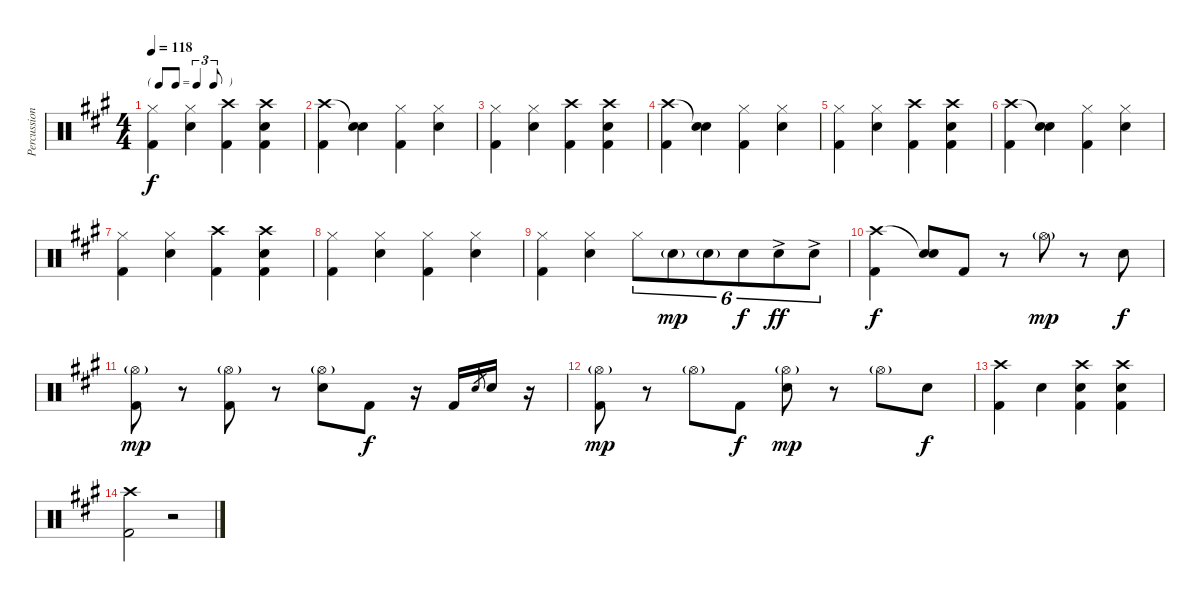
\track ("Percussion" "Percussion") {instrument percussion}
\staff {score}
\articulation defaults
\ts (4 4)
\tf triplet8th
\tempo 118
\clef neutral
\ks a
("Hi-Hat (closed)" "Kick (hit) 2").4{dy f} ("Hi-Hat (closed)" "Snare (hit) 2").4 ("Crash high (hit)" "Kick (hit) 2").4 ("Crash high (hit)" "Snare (hit) 2" "Kick (hit) 2").4 |
("Crash high (hit)" "Kick (hit) 2").4 ("Snare (hit)"{t} "Snare (hit) 2").4 ("Hi-Hat (closed)" "Kick (hit) 2").4 ("Hi-Hat (closed)" "Snare (hit) 2").4 |
("Hi-Hat (closed)" "Kick (hit) 2").4 ("Hi-Hat (closed)" "Snare (hit) 2").4 ("Crash high (hit)" "Kick (hit) 2").4 ("Crash high (hit)" "Snare (hit) 2" "Kick (hit) 2").4 |
("Crash high (hit)" "Kick (hit) 2").4 ("Snare (hit)"{t} "Snare (hit) 2").4 ("Hi-Hat (closed)" "Kick (hit) 2").4 ("Hi-Hat (closed)" "Snare (hit) 2").4 |
("Hi-Hat (closed)" "Kick (hit) 2").4 ("Hi-Hat (closed)" "Snare (hit) 2").4 ("Crash high (hit)" "Kick (hit) 2").4 ("Crash high (hit)" "Snare (hit) 2" "Kick (hit) 2").4 |
("Crash high (hit)" "Kick (hit) 2").4 ("Snare (hit)"{t} "Snare (hit) 2").4 ("Hi-Hat (closed)" "Kick (hit) 2").4 ("Hi-Hat (closed)" "Snare (hit) 2").4 |
("Hi-Hat (closed)" "Kick (hit) 2").4 ("Hi-Hat (closed)" "Snare (hit) 2").4 ("Crash high (hit)" "Kick (hit) 2").4 ("Crash high (hit)" "Snare (hit) 2" "Kick (hit) 2").4 |
("Hi-Hat (closed)" "Kick (hit) 2").4 ("Hi-Hat (closed)" "Snare (hit) 2").4 ("Hi-Hat (closed)" "Kick (hit) 2").4 ("Hi-Hat (closed)" "Snare (hit) 2").4 |
("Hi-Hat (closed)" "Kick (hit) 2").4 ("Hi-Hat (closed)" "Snare (hit) 2").4 "Hi-Hat (closed)".8{tu (6 4)} "Snare (hit) 2"{g}.8{tu (6 4) dy mp} "Snare (hit) 2"{g}.8{tu (6 4)} "Snare (hit) 2".8{tu (6 4) dy f} "Snare (hit) 2"{ac}.8{tu (6 4) dy ff} "Snare (hit) 2"{ac}.8{tu (6 4)} |
("Crash high (hit)" "Kick (hit) 2").4{dy f} ("Snare (hit)"{t} "Snare (hit) 2").8 "Kick (hit) 2".8 r.8 "Hi-Hat (open)"{g}.8{dy mp} r.8 "Snare (hit) 2".8{dy f} |
("Hi-Hat (open)"{g} "Kick (hit) 2").8{dy mp} r.8 ("Hi-Hat (open)"{g} "Kick (hit) 2").8 r.8 ("Hi-Hat (open)"{g} "Snare (hit) 2").8 "Kick (hit) 2".8{dy f} r.16 "Kick (hit) 2".16 "Snare (hit) 2".8{gr} "Snare (hit) 2".16 r.16 |
("Hi-Hat (open)"{g} "Kick (hit) 2").8{dy mp} r.8 "Hi-Hat (open)"{g}.8 "Kick (hit) 2".8{dy f} ("Hi-Hat (open)"{g} "Snare (hit) 2").8{dy mp} r.8 "Hi-Hat (open)"{g}.8 "Snare (hit) 2".8{dy f} |
("Crash high (hit)" "Kick (hit) 2").4 "Snare (hit) 2".4 ("Crash high (hit)" "Snare (hit) 2" "Kick (hit) 2").4 ("Crash high (hit)" "Snare (hit) 2" "Kick (hit) 2").4 |
("Crash high (hit)" "Kick (hit) 2").2 r.2
